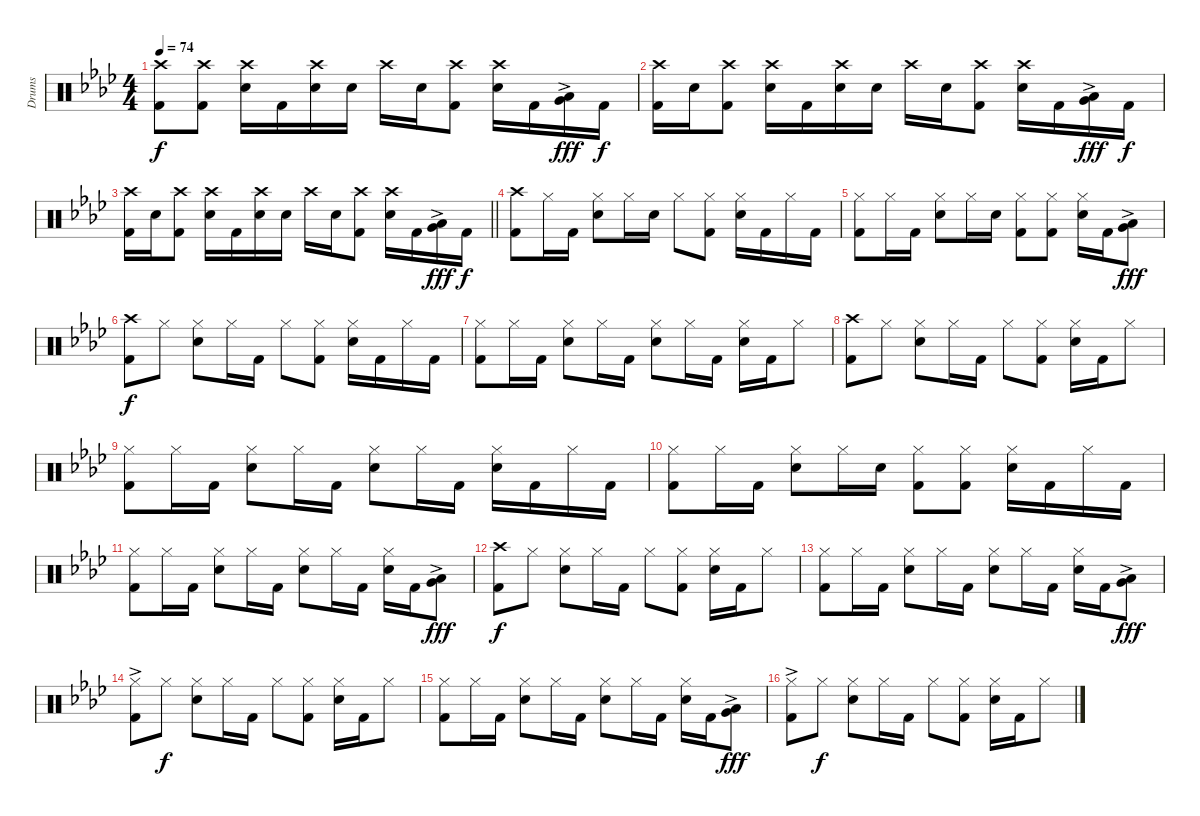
\track ("Drums" "Drums") {instrument percussion}
\staff {score}
\articulation defaults
\ts (4 4)
\tempo 74
\clef neutral
\ks fminor
("Crash high (hit)" "Kick (hit) 2").8{dy f} ("Crash high (hit)" "Kick (hit) 2").8 ("Crash high (hit)" "Snare (hit) 2").16 "Kick (hit) 2".16 ("Crash high (hit)" "Snare (hit) 2").16 "Snare (hit) 2".16 "Crash high (hit)".16 "Snare (hit) 2".16 ("Crash high (hit)" "Kick (hit) 2").8 ("Crash high (hit)" "Snare (hit) 2").16 "Kick (hit) 2".16 ("Low Tom (hit)" "Very Low Tom (hit)"{ac}).16{dy fff} "Kick (hit) 2".16{dy f} |
("Crash high (hit)" "Kick (hit) 2").16 "Snare (hit) 2".16 ("Crash high (hit)" "Kick (hit) 2").8 ("Crash high (hit)" "Snare (hit) 2").16 "Kick (hit) 2".16 ("Crash high (hit)" "Snare (hit) 2").16 "Snare (hit) 2".16 "Crash high (hit)".16 "Snare (hit) 2".16 ("Crash high (hit)" "Kick (hit) 2").8 ("Crash high (hit)" "Snare (hit) 2").16 "Kick (hit) 2".16 ("Low Tom (hit)" "Very Low Tom (hit)"{ac}).16{dy fff} "Kick (hit) 2".16{dy f} |
\barLineRight lightlight
("Crash high (hit)" "Kick (hit) 2").16 "Snare (hit) 2".16 ("Crash high (hit)" "Kick (hit) 2").8 ("Crash high (hit)" "Snare (hit) 2").16 "Kick (hit) 2".16 ("Crash high (hit)" "Snare (hit) 2").16 "Snare (hit) 2".16 "Crash high (hit)".16 "Snare (hit) 2".16 ("Crash high (hit)" "Kick (hit) 2").8 ("Crash high (hit)" "Snare (hit) 2").16 "Kick (hit) 2".16 ("Low Tom (hit)" "Very Low Tom (hit)"{ac}).16{dy fff} "Kick (hit) 2".16{dy f} |
("Crash high (hit)" "Kick (hit) 2").8 "Hi-Hat (closed)".16 "Kick (hit) 2".16 ("Hi-Hat (closed)" "Snare (hit) 2").8 "Hi-Hat (closed)".16 "Snare (hit) 2".16 "Hi-Hat (closed)".8 ("Hi-Hat (closed)" "Kick (hit) 2").8 ("Hi-Hat (closed)" "Snare (hit) 2").16 "Kick (hit) 2".16 "Hi-Hat (closed)".16 "Kick (hit) 2".16 |
("Hi-Hat (closed)" "Kick (hit) 2").8 "Hi-Hat (closed)".16 "Kick (hit) 2".16 ("Hi-Hat (closed)" "Snare (hit) 2").8 "Hi-Hat (closed)".16 "Snare (hit) 2".16 ("Hi-Hat (closed)" "Kick (hit) 2").8 ("Hi-Hat (closed)" "Kick (hit) 2").8 ("Hi-Hat (closed)" "Snare (hit) 2").16 "Kick (hit) 2".16 ("Low Tom (hit)"{ac} "Very Low Tom (hit)").8{dy fff} |
("Crash high (hit)" "Kick (hit) 2").8{dy f} "Hi-Hat (closed)".8 ("Hi-Hat (closed)" "Snare (hit) 2").8 "Hi-Hat (closed)".16 "Kick (hit) 2".16 "Hi-Hat (closed)".8 ("Hi-Hat (closed)" "Kick (hit) 2").8 ("Hi-Hat (closed)" "Snare (hit) 2").16 "Kick (hit) 2".16 "Hi-Hat (closed)".16 "Kick (hit) 2".16 |
("Hi-Hat (closed)" "Kick (hit) 2").8 "Hi-Hat (closed)".16 "Kick (hit) 2".16 ("Hi-Hat (closed)" "Snare (hit) 2").8 "Hi-Hat (closed)".16 "Kick (hit) 2".16 ("Hi-Hat (closed)" "Snare (hit) 2").8 "Hi-Hat (closed)".16 "Kick (hit) 2".16 ("Hi-Hat (closed)" "Snare (hit) 2").16 "Kick (hit) 2".16 "Hi-Hat (closed)".8 |
("Crash high (hit)" "Kick (hit) 2").8 "Hi-Hat (closed)".8 ("Hi-Hat (closed)" "Snare (hit) 2").8 "Hi-Hat (closed)".16 "Kick (hit) 2".16 "Hi-Hat (closed)".8 ("Hi-Hat (closed)" "Kick (hit) 2").8 ("Hi-Hat (closed)" "Snare (hit) 2").16 "Kick (hit) 2".16 "Hi-Hat (closed)".8 |
("Hi-Hat (closed)" "Kick (hit) 2").8 "Hi-Hat (closed)".16 "Kick (hit) 2".16 ("Hi-Hat (closed)" "Snare (hit) 2").8 "Hi-Hat (closed)".16 "Kick (hit) 2".16 ("Hi-Hat (closed)" "Snare (hit) 2").8 "Hi-Hat (closed)".16 "Kick (hit) 2".16 ("Hi-Hat (closed)" "Snare (hit) 2").16 "Kick (hit) 2".16 "Hi-Hat (closed)".16 "Kick (hit) 2".16 |
("Hi-Hat (closed)" "Kick (hit) 2").8 "Hi-Hat (closed)".16 "Kick (hit) 2".16 ("Hi-Hat (closed)" "Snare (hit) 2").8 "Hi-Hat (closed)".16 "Snare (hit) 2".16 ("Hi-Hat (closed)" "Kick (hit) 2").8 ("Hi-Hat (closed)" "Kick (hit) 2").8 ("Hi-Hat (closed)" "Snare (hit) 2").16 "Kick (hit) 2".16 "Hi-Hat (closed)".16 "Kick (hit) 2".16 |
("Hi-Hat (closed)" "Kick (hit) 2").8 "Hi-Hat (closed)".16 "Kick (hit) 2".16 ("Hi-Hat (closed)" "Snare (hit) 2").8 "Hi-Hat (closed)".16 "Kick (hit) 2".16 ("Hi-Hat (closed)" "Snare (hit) 2").8 "Hi-Hat (closed)".16 "Kick (hit) 2".16 ("Hi-Hat (closed)" "Snare (hit) 2").16 "Kick (hit) 2".16 ("Low Tom (hit)"{ac} "Very Low Tom (hit)").8{dy fff} |
("Crash high (hit)" "Kick (hit) 2").8{dy f} "Hi-Hat (closed)".8 ("Hi-Hat (closed)" "Snare (hit) 2").8 "Hi-Hat (closed)".16 "Kick (hit) 2".16 "Hi-Hat (closed)".8 ("Hi-Hat (closed)" "Kick (hit) 2").8 ("Hi-Hat (closed)" "Snare (hit) 2").16 "Kick (hit) 2".16 "Hi-Hat (closed)".8 |
("Hi-Hat (closed)" "Kick (hit) 2").8{volume 0} "Hi-Hat (closed)".16 "Kick (hit) 2".16 ("Hi-Hat (closed)" "Snare (hit) 2").8 "Hi-Hat (closed)".16 "Kick (hit) 2".16 ("Hi-Hat (closed)" "Snare (hit) 2").8 "Hi-Hat (closed)".16 "Kick (hit) 2".16 ("Hi-Hat (closed)" "Snare (hit) 2").16 "Kick (hit) 2".16 ("Low Tom (hit)"{ac} "Very Low Tom (hit)").8{dy fff} |
("Hi-Hat (closed)"{ac} "Kick (hit) 2").8 "Hi-Hat (closed)".8{dy f} ("Hi-Hat (closed)" "Snare (hit) 2").8 "Hi-Hat (closed)".16 "Kick (hit) 2".16 "Hi-Hat (closed)".8 ("Hi-Hat (closed)" "Kick (hit) 2").8 ("Hi-Hat (closed)" "Snare (hit) 2").16 "Kick (hit) 2".16 "Hi-Hat (closed)".8 |
("Hi-Hat (closed)" "Kick (hit) 2").8 "Hi-Hat (closed)".16 "Kick (hit) 2".16 ("Hi-Hat (closed)" "Snare (hit) 2").8 "Hi-Hat (closed)".16 "Kick (hit) 2".16 ("Hi-Hat (closed)" "Snare (hit) 2").8 "Hi-Hat (closed)".16 "Kick (hit) 2".16 ("Hi-Hat (closed)" "Snare (hit) 2").16 "Kick (hit) 2".16 ("Low Tom (hit)"{ac} "Very Low Tom (hit)").8{dy fff} |
("Hi-Hat (closed)"{ac} "Kick (hit) 2").8 "Hi-Hat (closed)".8{dy f} ("Hi-Hat (closed)" "Snare (hit) 2").8 "Hi-Hat (closed)".16 "Kick (hit) 2".16 "Hi-Hat (closed)".8 ("Hi-Hat (closed)" "Kick (hit) 2").8 ("Hi-Hat (closed)" "Snare (hit) 2").16 "Kick (hit) 2".16 "Hi-Hat (closed)".8
